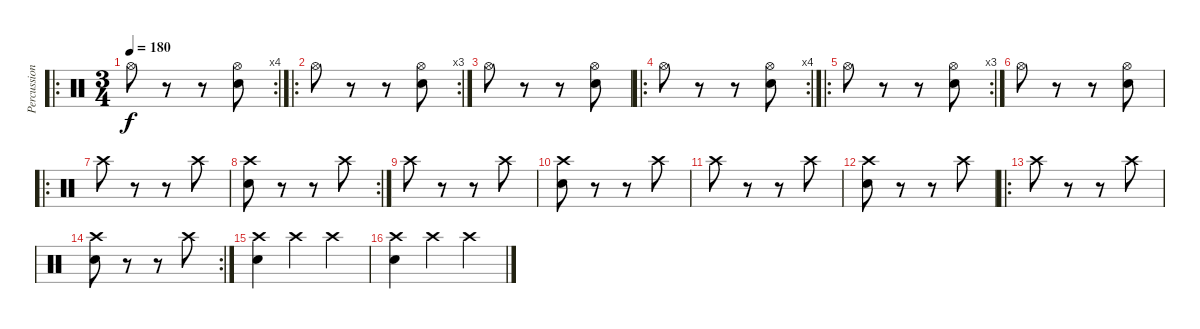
\track ("Percussion" "Percussion") {instrument percussion}
\staff {score}
\articulation defaults
\ro
\rc 4
\ts (3 4)
\tempo 180
\clef neutral
\ks c "Hi-Hat (open)".8{dy f}
r.8 r.8 ("Hi-Hat (open)" "Snare (hit) 2").8 |
\ro
\rc 3 "Hi-Hat (open)".8
r.8 r.8 ("Hi-Hat (open)" "Snare (hit) 2").8 |
"Hi-Hat (open)".8 r.8 r.8 ("Hi-Hat (open)" "Snare (hit) 2").8 |
\ro
\rc 4 "Hi-Hat (open)".8
r.8 r.8 ("Hi-Hat (open)" "Snare (hit) 2").8 |
\ro
\rc 3 "Hi-Hat (open)".8
r.8 r.8 ("Hi-Hat (open)" "Snare (hit) 2").8 |
"Hi-Hat (open)".8 r.8 r.8 ("Hi-Hat (open)" "Snare (hit) 2").8 |
\ro "Crash high (hit)".8
r.8 r.8 "Crash high (hit)".8 |
\rc 2
("Crash high (hit)" "Snare (hit) 2").8 r.8 r.8 "Crash high (hit)".8 |
"Crash high (hit)".8 r.8 r.8 "Crash high (hit)".8 |
("Crash high (hit)" "Snare (hit) 2").8 r.8 r.8 "Crash high (hit)".8 |
"Crash high (hit)".8 r.8 r.8 "Crash high (hit)".8 |
("Crash high (hit)" "Snare (hit) 2").8 r.8 r.8 "Crash high (hit)".8 |
\ro "Crash high (hit)".8
r.8 r.8 "Crash high (hit)".8 |
\rc 2
("Crash high (hit)" "Snare (hit) 2").8 r.8 r.8 "Crash high (hit)".8 |
("Crash high (hit)" "Snare (hit) 2").4 "Crash high (hit)".4 "Crash high (hit)".4 |
("Crash high (hit)" "Snare (hit) 2").4 "Crash high (hit)".4 "Crash high (hit)".4
